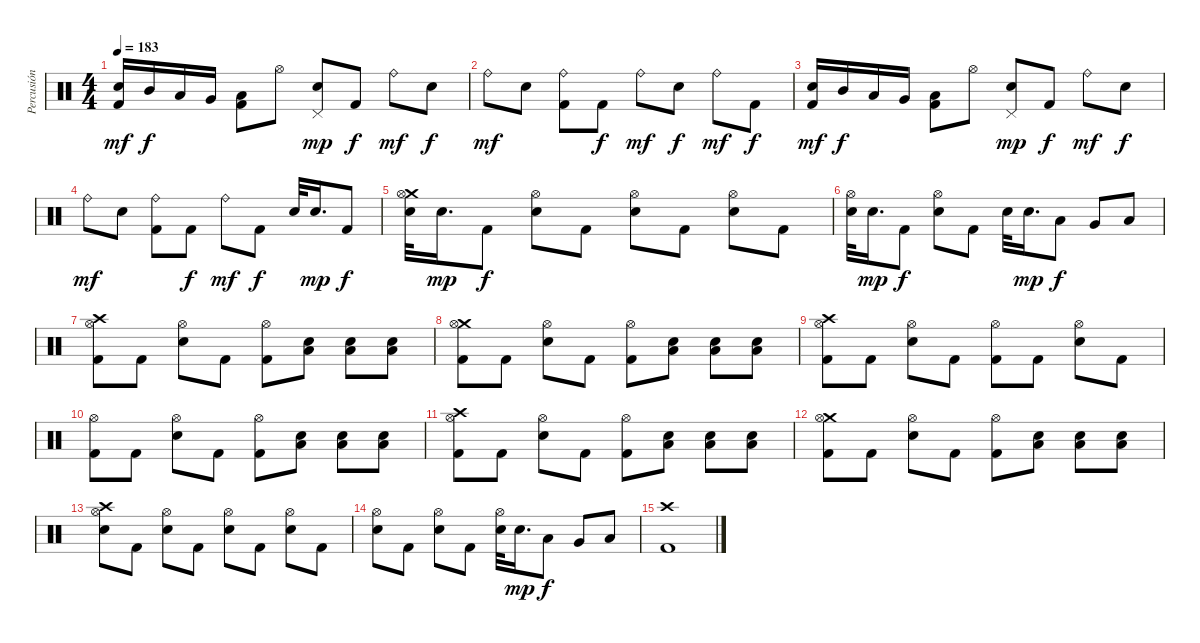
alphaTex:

\track ("Percusión" "Percusión") {instrument percussion}
\staff {score}
\articulation defaults
\ts (4 4)
\tempo 183
\clef neutral
\ks c
("Electric Snare (hit)" "Kick (hit) 2").16{dy mf} "Mid Tom (hit)".16{dy f} "Low Tom (hit)".16 "Very Low Tom (hit)".16 ("Low Floor Tom (hit)" "Kick (hit) 2").8 "Hi-Hat (open)".8 ("Pedal Hi-Hat (hit)" "Electric Snare (hit)").8{dy mp} "Kick (hit) 2".8{dy f} "Ride (bell)".8{dy mf} "Electric Snare (hit)".8{dy f} |
"Ride (bell)".8{dy mf} "Electric Snare (hit)".8 ("Ride (bell)" "Kick (hit) 2").8 "Kick (hit) 2".8{dy f} "Ride (bell)".8{dy mf} "Electric Snare (hit)".8{dy f} "Ride (bell)".8{dy mf} "Kick (hit) 2".8{dy f} |
("Electric Snare (hit)" "Kick (hit) 2").16{dy mf} "Mid Tom (hit)".16{dy f} "Low Tom (hit)".16 "Very Low Tom (hit)".16 ("Low Floor Tom (hit)" "Kick (hit) 2").8 "Hi-Hat (open)".8 ("Pedal Hi-Hat (hit)" "Electric Snare (hit)").8{dy mp} "Kick (hit) 2".8{dy f} "Ride (bell)".8{dy mf} "Electric Snare (hit)".8{dy f} |
"Ride (bell)".8{dy mf} "Electric Snare (hit)".8 ("Ride (bell)" "Kick (hit) 2").8 "Kick (hit) 2".8{dy f} "Ride (bell)".8{dy mf} "Kick (hit) 2".8{dy f} "Electric Snare (hit)".32 "Electric Snare (hit)".16{d dy mp} "Kick (hit) 2".8{dy f} |
("Crash medium (hit)" "Hi-Hat (open)" "Electric Snare (hit)").32 "Electric Snare (hit)".16{d dy mp} "Kick (hit) 2".8{dy f} ("Hi-Hat (open)" "Electric Snare (hit)").8 "Kick (hit) 2".8 ("Hi-Hat (open)" "Electric Snare (hit)").8 "Kick (hit) 2".8 ("Hi-Hat (open)" "Electric Snare (hit)").8 "Kick (hit) 2".8 |
("Hi-Hat (open)" "Electric Snare (hit)").32 "Electric Snare (hit)".16{d dy mp} "Kick (hit) 2".8{dy f} ("Hi-Hat (open)" "Electric Snare (hit)").8 "Kick (hit) 2".8 "Electric Snare (hit)".32 "Electric Snare (hit)".16{d dy mp} "Low Tom (hit)".8{dy f} "Very Low Tom (hit)".8 "Low Floor Tom (hit)".8 |
("Crash high (hit)" "Hi-Hat (open)" "Kick (hit) 2").8 "Kick (hit) 2".8 ("Hi-Hat (open)" "Electric Snare (hit)").8 "Kick (hit) 2".8 ("Hi-Hat (open)" "Kick (hit) 2").8 ("Low Floor Tom (hit)" "Electric Snare (hit)").8 ("Low Floor Tom (hit)" "Electric Snare (hit)").8 ("Low Floor Tom (hit)" "Electric Snare (hit)").8 |
("Crash medium (hit)" "Hi-Hat (open)" "Kick (hit) 2").8 "Kick (hit) 2".8 ("Hi-Hat (open)" "Electric Snare (hit)").8 "Kick (hit) 2".8 ("Hi-Hat (open)" "Kick (hit) 2").8 ("Low Floor Tom (hit)" "Electric Snare (hit)").8 ("Low Floor Tom (hit)" "Electric Snare (hit)").8 ("Low Floor Tom (hit)" "Electric Snare (hit)").8 |
("Crash high (hit)" "Hi-Hat (open)" "Kick (hit) 2").8 "Kick (hit) 2".8 ("Hi-Hat (open)" "Electric Snare (hit)").8 "Kick (hit) 2".8 ("Hi-Hat (open)" "Kick (hit) 2").8 "Kick (hit) 2".8 ("Hi-Hat (open)" "Electric Snare (hit)").8 "Kick (hit) 2".8 |
("Hi-Hat (open)" "Kick (hit) 2").8 "Kick (hit) 2".8 ("Hi-Hat (open)" "Electric Snare (hit)").8 "Kick (hit) 2".8 ("Hi-Hat (open)" "Kick (hit) 2").8 ("Low Floor Tom (hit)" "Electric Snare (hit)").8 ("Low Floor Tom (hit)" "Electric Snare (hit)").8 ("Low Floor Tom (hit)" "Electric Snare (hit)").8 |
("Crash high (hit)" "Hi-Hat (open)" "Kick (hit) 2").8 "Kick (hit) 2".8 ("Hi-Hat (open)" "Electric Snare (hit)").8 "Kick (hit) 2".8 ("Hi-Hat (open)" "Kick (hit) 2").8 ("Low Floor Tom (hit)" "Electric Snare (hit)").8 ("Low Floor Tom (hit)" "Electric Snare (hit)").8 ("Low Floor Tom (hit)" "Electric Snare (hit)").8 |
("Crash medium (hit)" "Hi-Hat (open)" "Kick (hit) 2").8 "Kick (hit) 2".8 ("Hi-Hat (open)" "Electric Snare (hit)").8 "Kick (hit) 2".8 ("Hi-Hat (open)" "Kick (hit) 2").8 ("Low Floor Tom (hit)" "Electric Snare (hit)").8 ("Low Floor Tom (hit)" "Electric Snare (hit)").8 ("Low Floor Tom (hit)" "Electric Snare (hit)").8 |
("Crash high (hit)" "Hi-Hat (open)" "Electric Snare (hit)").8 "Kick (hit) 2".8 ("Hi-Hat (open)" "Electric Snare (hit)").8 "Kick (hit) 2".8 ("Hi-Hat (open)" "Electric Snare (hit)").8 "Kick (hit) 2".8 ("Hi-Hat (open)" "Electric Snare (hit)").8 "Kick (hit) 2".8 |
("Hi-Hat (open)" "Electric Snare (hit)").8 "Kick (hit) 2".8 ("Hi-Hat (open)" "Electric Snare (hit)").8 "Kick (hit) 2".8 ("Hi-Hat (open)" "Electric Snare (hit)").32 "Electric Snare (hit)".16{d dy mp} "Low Tom (hit)".8{dy f} "Very Low Tom (hit)".8 "Low Floor Tom (hit)".8 |
("Crash high (hit)" "Kick (hit) 2").1
